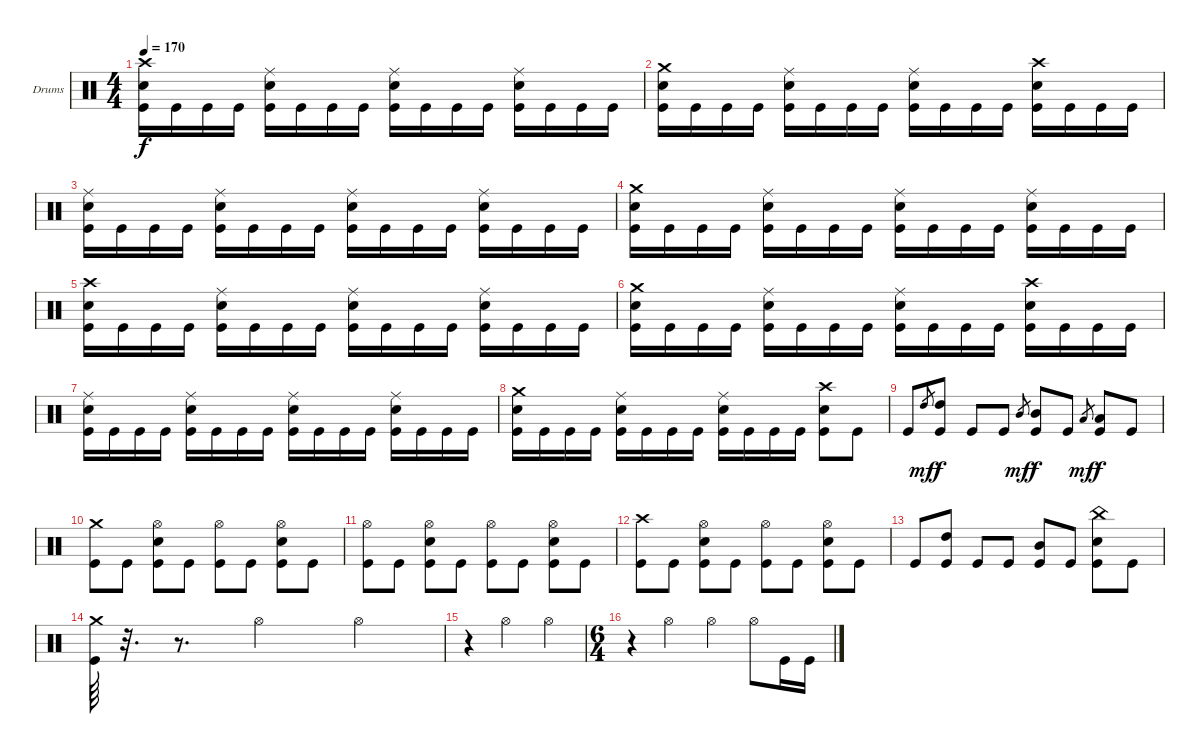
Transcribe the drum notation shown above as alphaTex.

\bracketExtendMode groupsimilarinstruments
\firstSystemTrackNameOrientation horizontal
\otherSystemsTrackNameOrientation horizontal
\track ("Дмитрий Кривенков" "Drums") {instrument percussion}
\staff {score}
\articulation defaults
\ts (4 4)
\tempo 170
\clef neutral
\ks c
("Crash high (hit)" "Snare (hit) 2" "Kick (hit)").16{dy f} "Kick (hit)".16 "Kick (hit)".16 "Kick (hit)".16 ("Ride (middle)" "Snare (hit) 2" "Kick (hit)").16 "Kick (hit)".16 "Kick (hit)".16 "Kick (hit)".16 ("Ride (middle)" "Snare (hit) 2" "Kick (hit)").16 "Kick (hit)".16 "Kick (hit)".16 "Kick (hit)".16 ("Ride (middle)" "Snare (hit) 2" "Kick (hit)").16 "Kick (hit)".16 "Kick (hit)".16 "Kick (hit)".16 |
("Crash medium (hit)" "Snare (hit) 2" "Kick (hit)").16 "Kick (hit)".16 "Kick (hit)".16 "Kick (hit)".16 ("Ride (middle)" "Snare (hit) 2" "Kick (hit)").16 "Kick (hit)".16 "Kick (hit)".16 "Kick (hit)".16 ("Ride (middle)" "Snare (hit) 2" "Kick (hit)").16 "Kick (hit)".16 "Kick (hit)".16 "Kick (hit)".16 ("Crash high (hit)" "Snare (hit) 2" "Kick (hit)").16 "Kick (hit)".16 "Kick (hit)".16 "Kick (hit)".16 |
("Ride (middle)" "Snare (hit) 2" "Kick (hit)").16 "Kick (hit)".16 "Kick (hit)".16 "Kick (hit)".16 ("Ride (middle)" "Snare (hit) 2" "Kick (hit)").16 "Kick (hit)".16 "Kick (hit)".16 "Kick (hit)".16 ("Ride (middle)" "Snare (hit) 2" "Kick (hit)").16 "Kick (hit)".16 "Kick (hit)".16 "Kick (hit)".16 ("Ride (middle)" "Snare (hit) 2" "Kick (hit)").16 "Kick (hit)".16 "Kick (hit)".16 "Kick (hit)".16 |
("Crash medium (hit)" "Snare (hit) 2" "Kick (hit)").16 "Kick (hit)".16 "Kick (hit)".16 "Kick (hit)".16 ("Ride (middle)" "Snare (hit) 2" "Kick (hit)").16 "Kick (hit)".16 "Kick (hit)".16 "Kick (hit)".16 ("Ride (middle)" "Snare (hit) 2" "Kick (hit)").16 "Kick (hit)".16 "Kick (hit)".16 "Kick (hit)".16 ("Ride (middle)" "Snare (hit) 2" "Kick (hit)").16 "Kick (hit)".16 "Kick (hit)".16 "Kick (hit)".16 |
("Crash high (hit)" "Snare (hit) 2" "Kick (hit)").16 "Kick (hit)".16 "Kick (hit)".16 "Kick (hit)".16 ("Ride (middle)" "Snare (hit) 2" "Kick (hit)").16 "Kick (hit)".16 "Kick (hit)".16 "Kick (hit)".16 ("Ride (middle)" "Snare (hit) 2" "Kick (hit)").16 "Kick (hit)".16 "Kick (hit)".16 "Kick (hit)".16 ("Ride (middle)" "Snare (hit) 2" "Kick (hit)").16 "Kick (hit)".16 "Kick (hit)".16 "Kick (hit)".16 |
("Crash medium (hit)" "Snare (hit) 2" "Kick (hit)").16 "Kick (hit)".16 "Kick (hit)".16 "Kick (hit)".16 ("Ride (middle)" "Snare (hit) 2" "Kick (hit)").16 "Kick (hit)".16 "Kick (hit)".16 "Kick (hit)".16 ("Ride (middle)" "Snare (hit) 2" "Kick (hit)").16 "Kick (hit)".16 "Kick (hit)".16 "Kick (hit)".16 ("Crash high (hit)" "Snare (hit) 2" "Kick (hit)").16 "Kick (hit)".16 "Kick (hit)".16 "Kick (hit)".16 |
("Ride (middle)" "Snare (hit) 2" "Kick (hit)").16 "Kick (hit)".16 "Kick (hit)".16 "Kick (hit)".16 ("Ride (middle)" "Snare (hit) 2" "Kick (hit)").16 "Kick (hit)".16 "Kick (hit)".16 "Kick (hit)".16 ("Ride (middle)" "Snare (hit) 2" "Kick (hit)").16 "Kick (hit)".16 "Kick (hit)".16 "Kick (hit)".16 ("Ride (middle)" "Snare (hit) 2" "Kick (hit)").16 "Kick (hit)".16 "Kick (hit)".16 "Kick (hit)".16 |
("Crash medium (hit)" "Snare (hit) 2" "Kick (hit)").16 "Kick (hit)".16 "Kick (hit)".16 "Kick (hit)".16 ("Ride (middle)" "Snare (hit) 2" "Kick (hit)").16 "Kick (hit)".16 "Kick (hit)".16 "Kick (hit)".16 ("Ride (middle)" "Snare (hit) 2" "Kick (hit)").16 "Kick (hit)".16 "Kick (hit)".16 "Kick (hit)".16 ("Crash high (hit)" "Snare (hit) 2" "Kick (hit)").8 "Kick (hit)".8 |
"Kick (hit)".8 "High Tom (hit)".8{gr dy mf} ("High Tom (hit)" "Kick (hit)").8{dy f} "Kick (hit)".8 "Kick (hit)".8 "Mid Tom (hit)".8{gr dy mf} ("Mid Tom (hit)" "Kick (hit)").8{dy f} "Kick (hit)".8 "Low Tom (hit)".8{gr dy mf} ("Low Tom (hit)" "Kick (hit)").8{dy f} "Kick (hit)".8 |
("Crash medium (hit)" "Kick (hit)").8 "Kick (hit)".8 ("Hi-Hat (open)" "Snare (hit) 2" "Kick (hit)").8 "Kick (hit)".8 ("Hi-Hat (open)" "Kick (hit)").8 "Kick (hit)".8 ("Hi-Hat (open)" "Snare (hit) 2" "Kick (hit)").8 "Kick (hit)".8 |
("Hi-Hat (open)" "Kick (hit)").8 "Kick (hit)".8 ("Hi-Hat (open)" "Snare (hit) 2" "Kick (hit)").8 "Kick (hit)".8 ("Hi-Hat (open)" "Kick (hit)").8 "Kick (hit)".8 ("Hi-Hat (open)" "Snare (hit) 2" "Kick (hit)").8 "Kick (hit)".8 |
("Crash high (hit)" "Kick (hit)").8 "Kick (hit)".8 ("Hi-Hat (open)" "Snare (hit) 2" "Kick (hit)").8 "Kick (hit)".8 ("Hi-Hat (open)" "Kick (hit)").8 "Kick (hit)".8 ("Hi-Hat (open)" "Snare (hit) 2" "Kick (hit)").8 "Kick (hit)".8 |
"Kick (hit)".8 ("High Tom (hit)" "Kick (hit)").8 "Kick (hit)".8 "Kick (hit)".8 ("Mid Tom (hit)" "Kick (hit)").8 "Kick (hit)".8 ("China (hit)" "Snare (hit) 2" "Kick (hit)").8 "Kick (hit)".8 |
("Crash medium (hit)" "Kick (hit)").64 r.32{d} r.8{d} "Hi-Hat (open)".2 "Hi-Hat (open)".4 |
r.4 "Hi-Hat (open)".2 "Hi-Hat (open)".4 |
\ts (6 4)
\beaming (8 6 6)
r.4 "Hi-Hat (open)".2 "Hi-Hat (open)".2 "Hi-Hat (open)".8 "Kick (hit)".16 "Kick (hit)".16
